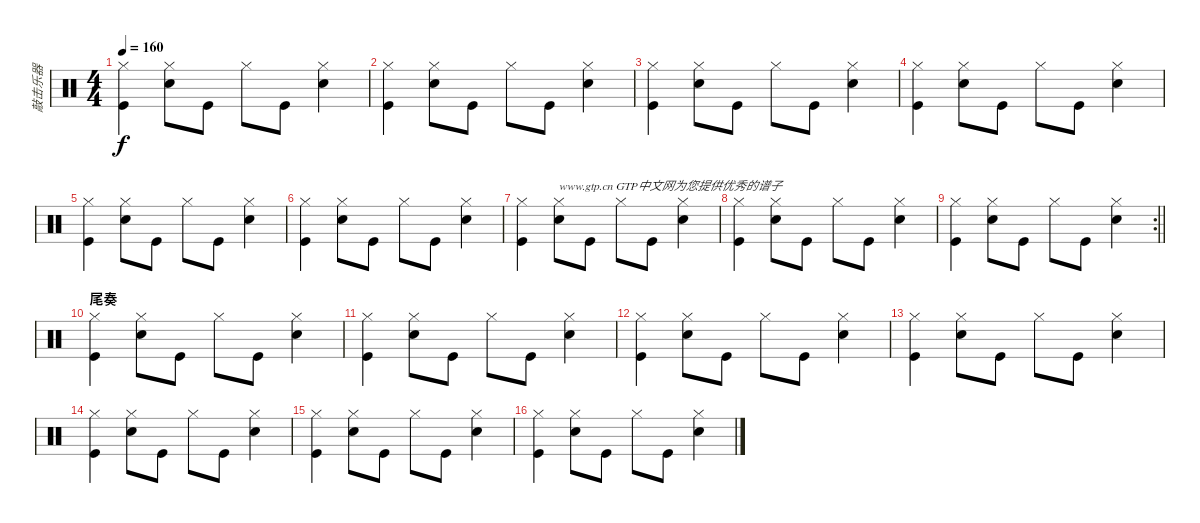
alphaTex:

\track ("敲击乐器" "敲击乐器") {instrument percussion}
\staff {score}
\articulation defaults
\ts (4 4)
\tempo 160
\clef neutral
\ks c
("Kick (hit)" "Hi-Hat (closed)").4{dy f} ("Hi-Hat (closed)" "Snare (hit) 2").8 "Kick (hit)".8 "Hi-Hat (closed)".8 "Kick (hit)".8 ("Hi-Hat (closed)" "Snare (hit) 2").4 |
("Kick (hit)" "Hi-Hat (closed)").4 ("Hi-Hat (closed)" "Snare (hit) 2").8 "Kick (hit)".8 "Hi-Hat (closed)".8 "Kick (hit)".8 ("Hi-Hat (closed)" "Snare (hit) 2").4 |
("Kick (hit)" "Hi-Hat (closed)").4 ("Hi-Hat (closed)" "Snare (hit) 2").8 "Kick (hit)".8 "Hi-Hat (closed)".8 "Kick (hit)".8 ("Hi-Hat (closed)" "Snare (hit) 2").4 |
("Kick (hit)" "Hi-Hat (closed)").4 ("Hi-Hat (closed)" "Snare (hit) 2").8 "Kick (hit)".8 "Hi-Hat (closed)".8 "Kick (hit)".8 ("Hi-Hat (closed)" "Snare (hit) 2").4 |
("Kick (hit)" "Hi-Hat (closed)").4 ("Hi-Hat (closed)" "Snare (hit) 2").8 "Kick (hit)".8 "Hi-Hat (closed)".8 "Kick (hit)".8 ("Hi-Hat (closed)" "Snare (hit) 2").4 |
("Kick (hit)" "Hi-Hat (closed)").4 ("Hi-Hat (closed)" "Snare (hit) 2").8 "Kick (hit)".8 "Hi-Hat (closed)".8 "Kick (hit)".8 ("Hi-Hat (closed)" "Snare (hit) 2").4 |
("Kick (hit)" "Hi-Hat (closed)").4 ("Hi-Hat (closed)" "Snare (hit) 2").8{txt "www.gtp.cn GTP中文网为您提供优秀的谱子"} "Kick (hit)".8 "Hi-Hat (closed)".8 "Kick (hit)".8 ("Hi-Hat (closed)" "Snare (hit) 2").4 |
("Kick (hit)" "Hi-Hat (closed)").4 ("Hi-Hat (closed)" "Snare (hit) 2").8 "Kick (hit)".8 "Hi-Hat (closed)".8 "Kick (hit)".8 ("Hi-Hat (closed)" "Snare (hit) 2").4 |
\rc 2
\barLineRight lightlight
("Kick (hit)" "Hi-Hat (closed)").4 ("Hi-Hat (closed)" "Snare (hit) 2").8 "Kick (hit)".8 "Hi-Hat (closed)".8 "Kick (hit)".8 ("Hi-Hat (closed)" "Snare (hit) 2").4 |
\section ("" "尾奏")
("Kick (hit)" "Hi-Hat (closed)").4 ("Hi-Hat (closed)" "Snare (hit) 2").8 "Kick (hit)".8 "Hi-Hat (closed)".8 "Kick (hit)".8 ("Hi-Hat (closed)" "Snare (hit) 2").4 |
("Kick (hit)" "Hi-Hat (closed)").4 ("Hi-Hat (closed)" "Snare (hit) 2").8 "Kick (hit)".8 "Hi-Hat (closed)".8 "Kick (hit)".8 ("Hi-Hat (closed)" "Snare (hit) 2").4 |
("Kick (hit)" "Hi-Hat (closed)").4 ("Hi-Hat (closed)" "Snare (hit) 2").8 "Kick (hit)".8 "Hi-Hat (closed)".8 "Kick (hit)".8 ("Hi-Hat (closed)" "Snare (hit) 2").4 |
("Kick (hit)" "Hi-Hat (closed)").4 ("Hi-Hat (closed)" "Snare (hit) 2").8 "Kick (hit)".8 "Hi-Hat (closed)".8 "Kick (hit)".8 ("Hi-Hat (closed)" "Snare (hit) 2").4 |
("Kick (hit)" "Hi-Hat (closed)").4 ("Hi-Hat (closed)" "Snare (hit) 2").8 "Kick (hit)".8 "Hi-Hat (closed)".8 "Kick (hit)".8 ("Hi-Hat (closed)" "Snare (hit) 2").4 |
("Kick (hit)" "Hi-Hat (closed)").4 ("Hi-Hat (closed)" "Snare (hit) 2").8 "Kick (hit)".8 "Hi-Hat (closed)".8 "Kick (hit)".8 ("Hi-Hat (closed)" "Snare (hit) 2").4 |
("Kick (hit)" "Hi-Hat (closed)").4 ("Hi-Hat (closed)" "Snare (hit) 2").8 "Kick (hit)".8 "Hi-Hat (closed)".8 "Kick (hit)".8 ("Hi-Hat (closed)" "Snare (hit) 2").4
